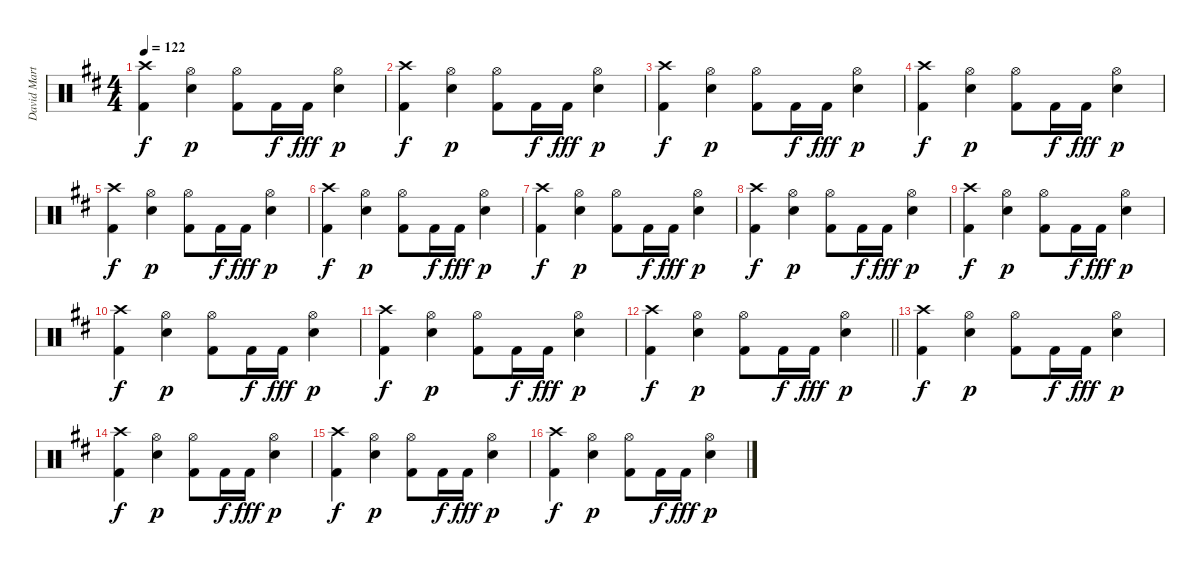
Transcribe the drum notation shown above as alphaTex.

\track ("David Martinez" "David Mart") {instrument percussion}
\staff {score}
\articulation defaults
\ts (4 4)
\tempo 122
\clef neutral
\ks d
("Crash high (hit)" "Kick (hit) 2").4{dy f} ("Hi-Hat (open)" "Snare (hit) 2").4{dy p} ("Hi-Hat (open)" "Kick (hit) 2").8 "Kick (hit) 2".16{dy f} "Kick (hit) 2".16{dy fff} ("Hi-Hat (open)" "Snare (hit) 2").4{dy p} |
("Crash high (hit)" "Kick (hit) 2").4{dy f} ("Hi-Hat (open)" "Snare (hit) 2").4{dy p} ("Hi-Hat (open)" "Kick (hit) 2").8 "Kick (hit) 2".16{dy f} "Kick (hit) 2".16{dy fff} ("Hi-Hat (open)" "Snare (hit) 2").4{dy p} |
("Crash high (hit)" "Kick (hit) 2").4{dy f} ("Hi-Hat (open)" "Snare (hit) 2").4{dy p} ("Hi-Hat (open)" "Kick (hit) 2").8 "Kick (hit) 2".16{dy f} "Kick (hit) 2".16{dy fff} ("Hi-Hat (open)" "Snare (hit) 2").4{dy p} |
("Crash high (hit)" "Kick (hit) 2").4{dy f} ("Hi-Hat (open)" "Snare (hit) 2").4{dy p} ("Hi-Hat (open)" "Kick (hit) 2").8 "Kick (hit) 2".16{dy f} "Kick (hit) 2".16{dy fff} ("Hi-Hat (open)" "Snare (hit) 2").4{dy p} |
("Crash high (hit)" "Kick (hit) 2").4{dy f} ("Hi-Hat (open)" "Snare (hit) 2").4{dy p} ("Hi-Hat (open)" "Kick (hit) 2").8 "Kick (hit) 2".16{dy f} "Kick (hit) 2".16{dy fff} ("Hi-Hat (open)" "Snare (hit) 2").4{dy p} |
("Crash high (hit)" "Kick (hit) 2").4{dy f} ("Hi-Hat (open)" "Snare (hit) 2").4{dy p} ("Hi-Hat (open)" "Kick (hit) 2").8 "Kick (hit) 2".16{dy f} "Kick (hit) 2".16{dy fff} ("Hi-Hat (open)" "Snare (hit) 2").4{dy p} |
("Crash high (hit)" "Kick (hit) 2").4{dy f} ("Hi-Hat (open)" "Snare (hit) 2").4{dy p} ("Hi-Hat (open)" "Kick (hit) 2").8 "Kick (hit) 2".16{dy f} "Kick (hit) 2".16{dy fff} ("Hi-Hat (open)" "Snare (hit) 2").4{dy p} |
("Crash high (hit)" "Kick (hit) 2").4{dy f} ("Hi-Hat (open)" "Snare (hit) 2").4{dy p} ("Hi-Hat (open)" "Kick (hit) 2").8 "Kick (hit) 2".16{dy f} "Kick (hit) 2".16{dy fff} ("Hi-Hat (open)" "Snare (hit) 2").4{dy p} |
("Crash high (hit)" "Kick (hit) 2").4{dy f} ("Hi-Hat (open)" "Snare (hit) 2").4{dy p} ("Hi-Hat (open)" "Kick (hit) 2").8 "Kick (hit) 2".16{dy f} "Kick (hit) 2".16{dy fff} ("Hi-Hat (open)" "Snare (hit) 2").4{dy p} |
("Crash high (hit)" "Kick (hit) 2").4{dy f} ("Hi-Hat (open)" "Snare (hit) 2").4{dy p} ("Hi-Hat (open)" "Kick (hit) 2").8 "Kick (hit) 2".16{dy f} "Kick (hit) 2".16{dy fff} ("Hi-Hat (open)" "Snare (hit) 2").4{dy p} |
("Crash high (hit)" "Kick (hit) 2").4{dy f} ("Hi-Hat (open)" "Snare (hit) 2").4{dy p} ("Hi-Hat (open)" "Kick (hit) 2").8 "Kick (hit) 2".16{dy f} "Kick (hit) 2".16{dy fff} ("Hi-Hat (open)" "Snare (hit) 2").4{dy p} |
\barLineRight lightlight
("Crash high (hit)" "Kick (hit) 2").4{dy f} ("Hi-Hat (open)" "Snare (hit) 2").4{dy p} ("Hi-Hat (open)" "Kick (hit) 2").8 "Kick (hit) 2".16{dy f} "Kick (hit) 2".16{dy fff} ("Hi-Hat (open)" "Snare (hit) 2").4{dy p} |
("Crash high (hit)" "Kick (hit) 2").4{dy f} ("Hi-Hat (open)" "Snare (hit) 2").4{dy p} ("Hi-Hat (open)" "Kick (hit) 2").8 "Kick (hit) 2".16{dy f} "Kick (hit) 2".16{dy fff} ("Hi-Hat (open)" "Snare (hit) 2").4{dy p} |
("Crash high (hit)" "Kick (hit) 2").4{dy f} ("Hi-Hat (open)" "Snare (hit) 2").4{dy p} ("Hi-Hat (open)" "Kick (hit) 2").8 "Kick (hit) 2".16{dy f} "Kick (hit) 2".16{dy fff} ("Hi-Hat (open)" "Snare (hit) 2").4{dy p} |
("Crash high (hit)" "Kick (hit) 2").4{dy f} ("Hi-Hat (open)" "Snare (hit) 2").4{dy p} ("Hi-Hat (open)" "Kick (hit) 2").8 "Kick (hit) 2".16{dy f} "Kick (hit) 2".16{dy fff} ("Hi-Hat (open)" "Snare (hit) 2").4{dy p} |
("Crash high (hit)" "Kick (hit) 2").4{dy f} ("Hi-Hat (open)" "Snare (hit) 2").4{dy p} ("Hi-Hat (open)" "Kick (hit) 2").8 "Kick (hit) 2".16{dy f} "Kick (hit) 2".16{dy fff} ("Hi-Hat (open)" "Snare (hit) 2").4{dy p}
